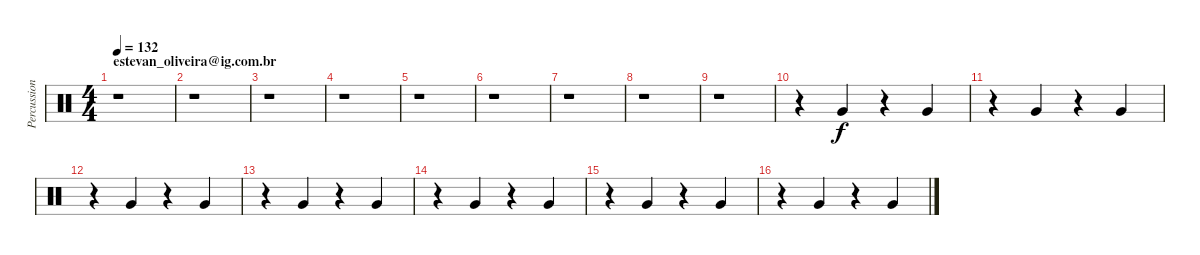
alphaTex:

\track ("Percussion" "Percussion") {instrument percussion}
\staff {score}
\articulation defaults
\ts (4 4)
\section ("" "estevan_oliveira@ig.com.br")
\tempo 132
\clef neutral
\ks c
r.1{dy f} |
r.1 |
r.1 |
r.1 |
r.1 |
r.1 |
r.1 |
r.1 |
r.1 |
r.4 "Very Low Tom (hit)".4 r.4 "Very Low Tom (hit)".4 |
r.4 "Very Low Tom (hit)".4 r.4 "Very Low Tom (hit)".4 |
r.4 "Very Low Tom (hit)".4 r.4 "Very Low Tom (hit)".4 |
r.4 "Very Low Tom (hit)".4 r.4 "Very Low Tom (hit)".4 |
r.4 "Very Low Tom (hit)".4 r.4 "Very Low Tom (hit)".4 |
r.4 "Very Low Tom (hit)".4 r.4 "Very Low Tom (hit)".4 |
r.4 "Very Low Tom (hit)".4 r.4 "Very Low Tom (hit)".4
